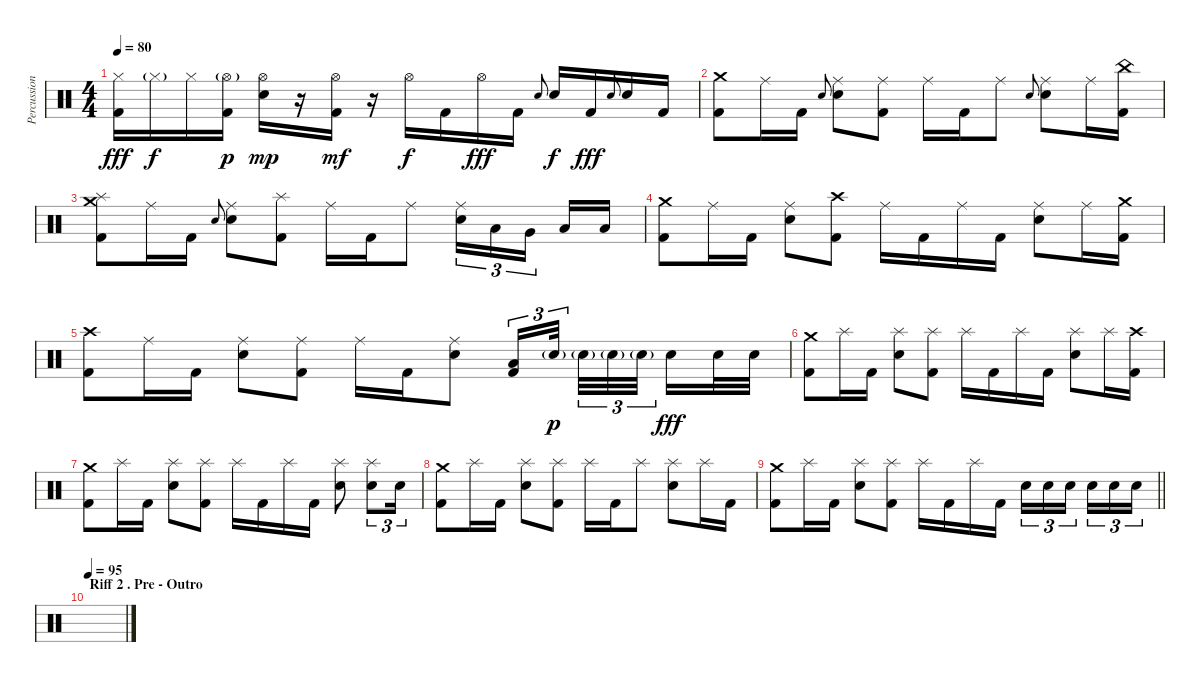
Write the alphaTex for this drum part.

\track ("Percussions" "Percussion") {instrument percussion}
\staff {score}
\articulation defaults
\ts (4 4)
\tempo 80
\clef neutral
\ks c
("Kick (hit) 2" "Hi-Hat (closed)").16{dy fff} "Hi-Hat (closed)"{g}.16{dy f} "Hi-Hat (closed)".16 ("Kick (hit) 2" "Hi-Hat (open)"{g}).16{dy p} ("Electric Snare (hit)" "Hi-Hat (open)").16{dy mp} r.16 ("Kick (hit) 2" "Hi-Hat (open)").16{dy mf} r.16 "Hi-Hat (open)".16{dy f} "Kick (hit) 2".16 "Hi-Hat (open)".16{dy fff} "Kick (hit) 2".16 "Electric Snare (hit)".8{gr onbeat} "Electric Snare (hit)".16{dy f} "Kick (hit) 2".16{dy fff} "Electric Snare (hit)".8{gr onbeat} "Electric Snare (hit)".16 "Kick (hit) 2".16 |
("Crash medium (hit)" "Kick (hit) 2").8 "Ride (middle)".16 "Kick (hit) 2".16 "Electric Snare (hit)".8{gr onbeat} ("Electric Snare (hit)" "Ride (middle)").8 ("Kick (hit) 2" "Ride (middle)").8 "Ride (middle)".16 "Kick (hit) 2".16 "Ride (middle)".8 "Electric Snare (hit)".8{gr onbeat} ("Electric Snare (hit)" "Ride (middle)").8 "Ride (middle)".16 ("China (hit)" "Kick (hit) 2").16 |
("Splash (hit)" "Crash medium (hit)" "Kick (hit) 2").8 "Ride (middle)".16 "Kick (hit) 2".16 "Electric Snare (hit)".8{gr onbeat} ("Electric Snare (hit)" "Ride (middle)").8 ("Splash (hit)" "Kick (hit) 2").8 "Ride (middle)".16 "Kick (hit) 2".16 "Ride (middle)".8 ("Electric Snare (hit)" "Ride (middle)").16{tu (3 2)} "Low Tom (hit)".16{tu (3 2)} "Very Low Tom (hit)".16{tu (3 2) beam splitsecondary} "Low Floor Tom (hit)".16 "Low Floor Tom (hit)".16 |
("Crash medium (hit)" "Kick (hit) 2").8 "Ride (middle)".16 "Kick (hit) 2".16 ("Electric Snare (hit)" "Ride (middle)").8 ("Crash high (hit)" "Kick (hit) 2").8 "Ride (middle)".16 "Kick (hit) 2".16 "Ride (middle)".16 "Kick (hit) 2".16 ("Electric Snare (hit)" "Ride (middle)").8 "Ride (middle)".16 ("Crash medium (hit)" "Kick (hit) 2").16 |
("Crash high (hit)" "Kick (hit) 2").8 "Ride (middle)".16 "Kick (hit) 2".16 ("Electric Snare (hit)" "Ride (middle)").8 ("Kick (hit) 2" "Ride (middle)").8 "Ride (middle)".16 "Kick (hit) 2".16 ("Electric Snare (hit)" "Ride (middle)").8 ("Low Tom (hit)" "Kick (hit) 2").16{tu (3 2)} "Electric Snare (hit)"{g}.32{tu (3 2) dy p beam splitsecondary} "Electric Snare (hit)"{g}.32{tu (3 2)} "Electric Snare (hit)"{g}.32{tu (3 2)} "Electric Snare (hit)"{g}.32{tu (3 2) beam splitsecondary} "Electric Snare (hit)".16{dy fff} "Electric Snare (hit)".32 "Electric Snare (hit)".32 |
("Crash medium (hit)" "Kick (hit) 2").8 "Splash (hit)".16 "Kick (hit) 2".16 ("Splash (hit)" "Electric Snare (hit)").8 ("Splash (hit)" "Kick (hit) 2").8 "Splash (hit)".16 "Kick (hit) 2".16 "Splash (hit)".16 "Kick (hit) 2".16 ("Splash (hit)" "Electric Snare (hit)").8 "Splash (hit)".16 ("Crash high (hit)" "Kick (hit) 2").16 |
("Crash medium (hit)" "Kick (hit) 2").8 "Splash (hit)".16 "Kick (hit) 2".16 ("Splash (hit)" "Electric Snare (hit)").8 ("Splash (hit)" "Kick (hit) 2").8 "Splash (hit)".16 "Kick (hit) 2".16 "Splash (hit)".16 "Kick (hit) 2".16 ("Splash (hit)" "Electric Snare (hit)").8 ("Splash (hit)" "Electric Snare (hit)").8{tu (3 2)} "Electric Snare (hit)".16{tu (3 2)} |
("Crash medium (hit)" "Kick (hit) 2").8 "Splash (hit)".16 "Kick (hit) 2".16 ("Splash (hit)" "Electric Snare (hit)").8 ("Splash (hit)" "Kick (hit) 2").8 "Splash (hit)".16 "Kick (hit) 2".16 "Splash (hit)".8 ("Splash (hit)" "Electric Snare (hit)").8 "Splash (hit)".16 "Kick (hit) 2".16 |
\barLineRight lightlight
("Crash medium (hit)" "Kick (hit) 2").8 "Splash (hit)".16 "Kick (hit) 2".16 ("Splash (hit)" "Electric Snare (hit)").8 ("Splash (hit)" "Kick (hit) 2").8 "Splash (hit)".16 "Kick (hit) 2".16 "Splash (hit)".16 "Kick (hit) 2".16 "Electric Snare (hit)".16{tu (3 2)} "Electric Snare (hit)".16{tu (3 2)} "Electric Snare (hit)".16{tu (3 2) beam splitsecondary} "Electric Snare (hit)".16{tu (3 2)} "Electric Snare (hit)".16{tu (3 2)} "Electric Snare (hit)".16{tu (3 2)} |
\section ("" "Riff 2 . Pre - Outro")
\tempo 95
